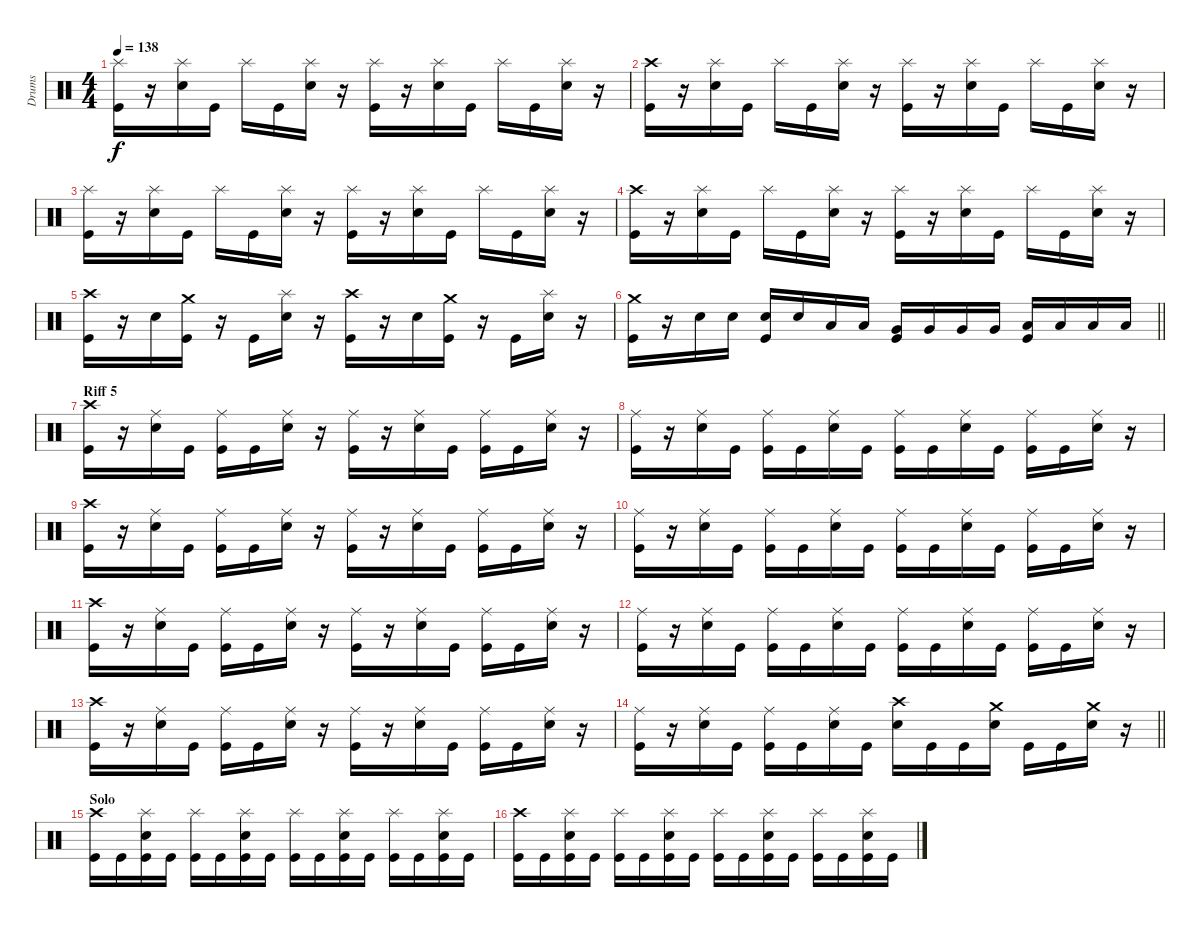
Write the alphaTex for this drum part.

\track ("Drums" "Drums") {instrument percussion}
\staff {score}
\articulation defaults
\ts (4 4)
\tempo 138
\clef neutral
\ks c
("Splash (hit)" "Kick (hit)").16{dy f} r.16 ("Splash (hit)" "Electric Snare (hit)").16 "Kick (hit)".16 "Splash (hit)".16 "Kick (hit)".16 ("Splash (hit)" "Electric Snare (hit)").16 r.16 ("Splash (hit)" "Kick (hit)").16 r.16 ("Splash (hit)" "Electric Snare (hit)").16 "Kick (hit)".16 "Splash (hit)".16 "Kick (hit)".16 ("Splash (hit)" "Electric Snare (hit)").16 r.16 |
("Crash high (hit)" "Kick (hit)").16 r.16 ("Splash (hit)" "Electric Snare (hit)").16 "Kick (hit)".16 "Splash (hit)".16 "Kick (hit)".16 ("Splash (hit)" "Electric Snare (hit)").16 r.16 ("Splash (hit)" "Kick (hit)").16 r.16 ("Splash (hit)" "Electric Snare (hit)").16 "Kick (hit)".16 "Splash (hit)".16 "Kick (hit)".16 ("Splash (hit)" "Electric Snare (hit)").16 r.16 |
("Splash (hit)" "Kick (hit)").16 r.16 ("Splash (hit)" "Electric Snare (hit)").16 "Kick (hit)".16 "Splash (hit)".16 "Kick (hit)".16 ("Splash (hit)" "Electric Snare (hit)").16 r.16 ("Splash (hit)" "Kick (hit)").16 r.16 ("Splash (hit)" "Electric Snare (hit)").16 "Kick (hit)".16 "Splash (hit)".16 "Kick (hit)".16 ("Splash (hit)" "Electric Snare (hit)").16 r.16 |
("Crash high (hit)" "Kick (hit)").16 r.16 ("Splash (hit)" "Electric Snare (hit)").16 "Kick (hit)".16 "Splash (hit)".16 "Kick (hit)".16 ("Splash (hit)" "Electric Snare (hit)").16 r.16 ("Splash (hit)" "Kick (hit)").16 r.16 ("Splash (hit)" "Electric Snare (hit)").16 "Kick (hit)".16 "Splash (hit)".16 "Kick (hit)".16 ("Splash (hit)" "Electric Snare (hit)").16 r.16 |
("Crash high (hit)" "Kick (hit)").16 r.16 "Electric Snare (hit)".16 ("Crash medium (hit)" "Kick (hit)").16 r.16 "Kick (hit)".16 ("Splash (hit)" "Electric Snare (hit)").16 r.16 ("Crash high (hit)" "Kick (hit)").16 r.16 "Electric Snare (hit)".16 ("Crash medium (hit)" "Kick (hit)").16 r.16 "Kick (hit)".16 ("Splash (hit)" "Electric Snare (hit)").16 r.16 |
\barLineRight lightlight
("Crash medium (hit)" "Kick (hit)").16 r.16 "Electric Snare (hit)".16 "Electric Snare (hit)".16 ("Electric Snare (hit)" "Kick (hit)").16 "Electric Snare (hit)".16 "Low Tom (hit)".16 "Low Tom (hit)".16 ("Very Low Tom (hit)" "Kick (hit)").16 "Very Low Tom (hit)".16 "Very Low Tom (hit)".16 "Very Low Tom (hit)".16 ("Low Floor Tom (hit)" "Kick (hit)").16 "Low Floor Tom (hit)".16 "Low Floor Tom (hit)".16 "Low Floor Tom (hit)".16 |
\section ("" "Riff 5")
("Crash high (hit)" "Kick (hit)").16 r.16 ("Ride (middle)" "Electric Snare (hit)").16 "Kick (hit)".16 ("Ride (middle)" "Kick (hit)").16 "Kick (hit)".16 ("Ride (middle)" "Electric Snare (hit)").16 r.16 ("Ride (middle)" "Kick (hit)").16 r.16 ("Ride (middle)" "Electric Snare (hit)").16 "Kick (hit)".16 ("Ride (middle)" "Kick (hit)").16 "Kick (hit)".16 ("Ride (middle)" "Electric Snare (hit)").16 r.16 |
("Ride (middle)" "Kick (hit)").16 r.16 ("Ride (middle)" "Electric Snare (hit)").16 "Kick (hit)".16 ("Ride (middle)" "Kick (hit)").16 "Kick (hit)".16 ("Ride (middle)" "Electric Snare (hit)").16 "Kick (hit)".16 ("Ride (middle)" "Kick (hit)").16 "Kick (hit)".16 ("Ride (middle)" "Electric Snare (hit)").16 "Kick (hit)".16 ("Ride (middle)" "Kick (hit)").16 "Kick (hit)".16 ("Ride (middle)" "Electric Snare (hit)").16 r.16 |
("Crash high (hit)" "Kick (hit)").16 r.16 ("Ride (middle)" "Electric Snare (hit)").16 "Kick (hit)".16 ("Ride (middle)" "Kick (hit)").16 "Kick (hit)".16 ("Ride (middle)" "Electric Snare (hit)").16 r.16 ("Ride (middle)" "Kick (hit)").16 r.16 ("Ride (middle)" "Electric Snare (hit)").16 "Kick (hit)".16 ("Ride (middle)" "Kick (hit)").16 "Kick (hit)".16 ("Ride (middle)" "Electric Snare (hit)").16 r.16 |
("Ride (middle)" "Kick (hit)").16 r.16 ("Ride (middle)" "Electric Snare (hit)").16 "Kick (hit)".16 ("Ride (middle)" "Kick (hit)").16 "Kick (hit)".16 ("Ride (middle)" "Electric Snare (hit)").16 "Kick (hit)".16 ("Ride (middle)" "Kick (hit)").16 "Kick (hit)".16 ("Ride (middle)" "Electric Snare (hit)").16 "Kick (hit)".16 ("Ride (middle)" "Kick (hit)").16 "Kick (hit)".16 ("Ride (middle)" "Electric Snare (hit)").16 r.16 |
("Crash high (hit)" "Kick (hit)").16 r.16 ("Ride (middle)" "Electric Snare (hit)").16 "Kick (hit)".16 ("Ride (middle)" "Kick (hit)").16 "Kick (hit)".16 ("Ride (middle)" "Electric Snare (hit)").16 r.16 ("Ride (middle)" "Kick (hit)").16 r.16 ("Ride (middle)" "Electric Snare (hit)").16 "Kick (hit)".16 ("Ride (middle)" "Kick (hit)").16 "Kick (hit)".16 ("Ride (middle)" "Electric Snare (hit)").16 r.16 |
("Ride (middle)" "Kick (hit)").16 r.16 ("Ride (middle)" "Electric Snare (hit)").16 "Kick (hit)".16 ("Ride (middle)" "Kick (hit)").16 "Kick (hit)".16 ("Ride (middle)" "Electric Snare (hit)").16 "Kick (hit)".16 ("Ride (middle)" "Kick (hit)").16 "Kick (hit)".16 ("Ride (middle)" "Electric Snare (hit)").16 "Kick (hit)".16 ("Ride (middle)" "Kick (hit)").16 "Kick (hit)".16 ("Ride (middle)" "Electric Snare (hit)").16 r.16 |
("Crash high (hit)" "Kick (hit)").16 r.16 ("Ride (middle)" "Electric Snare (hit)").16 "Kick (hit)".16 ("Ride (middle)" "Kick (hit)").16 "Kick (hit)".16 ("Ride (middle)" "Electric Snare (hit)").16 r.16 ("Ride (middle)" "Kick (hit)").16 r.16 ("Ride (middle)" "Electric Snare (hit)").16 "Kick (hit)".16 ("Ride (middle)" "Kick (hit)").16 "Kick (hit)".16 ("Ride (middle)" "Electric Snare (hit)").16 r.16 |
\barLineRight lightlight
("Ride (middle)" "Kick (hit)").16 r.16 ("Ride (middle)" "Electric Snare (hit)").16 "Kick (hit)".16 ("Ride (middle)" "Kick (hit)").16 "Kick (hit)".16 ("Ride (middle)" "Electric Snare (hit)").16 "Kick (hit)".16 ("Crash high (hit)" "Electric Snare (hit)").16 "Kick (hit)".16 "Kick (hit)".16 ("Crash medium (hit)" "Electric Snare (hit)").16 "Kick (hit)".16 "Kick (hit)".16 ("Crash medium (hit)" "Electric Snare (hit)").16 r.16 |
\section ("" "Solo")
("Crash high (hit)" "Kick (hit)").16 "Kick (hit)".16 ("Splash (hit)" "Electric Snare (hit)" "Kick (hit)").16 "Kick (hit)".16 ("Splash (hit)" "Kick (hit)").16 "Kick (hit)".16 ("Splash (hit)" "Electric Snare (hit)" "Kick (hit)").16 "Kick (hit)".16 ("Splash (hit)" "Kick (hit)").16 "Kick (hit)".16 ("Splash (hit)" "Electric Snare (hit)" "Kick (hit)").16 "Kick (hit)".16 ("Splash (hit)" "Kick (hit)").16 "Kick (hit)".16 ("Splash (hit)" "Electric Snare (hit)" "Kick (hit)").16 "Kick (hit)".16 |
("Crash high (hit)" "Kick (hit)").16 "Kick (hit)".16 ("Splash (hit)" "Electric Snare (hit)" "Kick (hit)").16 "Kick (hit)".16 ("Splash (hit)" "Kick (hit)").16 "Kick (hit)".16 ("Splash (hit)" "Electric Snare (hit)" "Kick (hit)").16 "Kick (hit)".16 ("Splash (hit)" "Kick (hit)").16 "Kick (hit)".16 ("Splash (hit)" "Electric Snare (hit)" "Kick (hit)").16 "Kick (hit)".16 ("Splash (hit)" "Kick (hit)").16 "Kick (hit)".16 ("Splash (hit)" "Electric Snare (hit)" "Kick (hit)").16 "Kick (hit)".16
